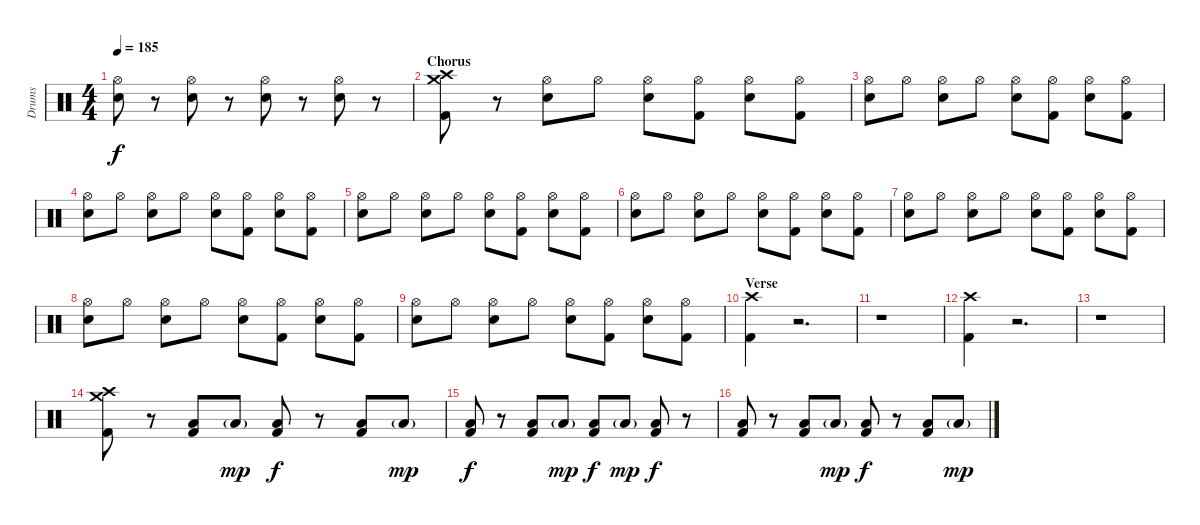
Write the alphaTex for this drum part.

\track ("Drums" "Drums") {instrument percussion}
\staff {score}
\articulation defaults
\ts (4 4)
\tempo 185
\clef neutral
\ks c
("Hi-Hat (open)" "Electric Snare (hit)").8{dy f} r.8 ("Hi-Hat (open)" "Electric Snare (hit)").8 r.8 ("Hi-Hat (open)" "Electric Snare (hit)").8 r.8 ("Hi-Hat (open)" "Electric Snare (hit)").8 r.8 |
\section ("" "Chorus")
("Crash high (hit)" "Crash medium (hit)" "Kick (hit) 2").8{volume 13} r.8 ("Hi-Hat (open)" "Electric Snare (hit)").8 "Hi-Hat (open)".8 ("Hi-Hat (open)" "Electric Snare (hit)").8 ("Hi-Hat (open)" "Kick (hit) 2").8 ("Hi-Hat (open)" "Electric Snare (hit)").8 ("Hi-Hat (open)" "Kick (hit) 2").8 |
("Hi-Hat (open)" "Electric Snare (hit)").8 "Hi-Hat (open)".8 ("Hi-Hat (open)" "Electric Snare (hit)").8 "Hi-Hat (open)".8 ("Hi-Hat (open)" "Electric Snare (hit)").8 ("Hi-Hat (open)" "Kick (hit) 2").8 ("Hi-Hat (open)" "Electric Snare (hit)").8 ("Hi-Hat (open)" "Kick (hit) 2").8 |
("Hi-Hat (open)" "Electric Snare (hit)").8 "Hi-Hat (open)".8 ("Hi-Hat (open)" "Electric Snare (hit)").8 "Hi-Hat (open)".8 ("Hi-Hat (open)" "Electric Snare (hit)").8 ("Hi-Hat (open)" "Kick (hit) 2").8 ("Hi-Hat (open)" "Electric Snare (hit)").8 ("Hi-Hat (open)" "Kick (hit) 2").8 |
("Hi-Hat (open)" "Electric Snare (hit)").8 "Hi-Hat (open)".8 ("Hi-Hat (open)" "Electric Snare (hit)").8 "Hi-Hat (open)".8 ("Hi-Hat (open)" "Electric Snare (hit)").8 ("Hi-Hat (open)" "Kick (hit) 2").8 ("Hi-Hat (open)" "Electric Snare (hit)").8 ("Hi-Hat (open)" "Kick (hit) 2").8 |
("Hi-Hat (open)" "Electric Snare (hit)").8 "Hi-Hat (open)".8 ("Hi-Hat (open)" "Electric Snare (hit)").8 "Hi-Hat (open)".8 ("Hi-Hat (open)" "Electric Snare (hit)").8 ("Hi-Hat (open)" "Kick (hit) 2").8 ("Hi-Hat (open)" "Electric Snare (hit)").8 ("Hi-Hat (open)" "Kick (hit) 2").8 |
("Hi-Hat (open)" "Electric Snare (hit)").8 "Hi-Hat (open)".8 ("Hi-Hat (open)" "Electric Snare (hit)").8 "Hi-Hat (open)".8 ("Hi-Hat (open)" "Electric Snare (hit)").8 ("Hi-Hat (open)" "Kick (hit) 2").8 ("Hi-Hat (open)" "Electric Snare (hit)").8 ("Hi-Hat (open)" "Kick (hit) 2").8 |
("Hi-Hat (open)" "Electric Snare (hit)").8 "Hi-Hat (open)".8 ("Hi-Hat (open)" "Electric Snare (hit)").8 "Hi-Hat (open)".8 ("Hi-Hat (open)" "Electric Snare (hit)").8 ("Hi-Hat (open)" "Kick (hit) 2").8 ("Hi-Hat (open)" "Electric Snare (hit)").8 ("Hi-Hat (open)" "Kick (hit) 2").8 |
("Hi-Hat (open)" "Electric Snare (hit)").8 "Hi-Hat (open)".8 ("Hi-Hat (open)" "Electric Snare (hit)").8 "Hi-Hat (open)".8 ("Hi-Hat (open)" "Electric Snare (hit)").8 ("Hi-Hat (open)" "Kick (hit) 2").8 ("Hi-Hat (open)" "Electric Snare (hit)").8 ("Hi-Hat (open)" "Kick (hit) 2").8 |
\section ("" "Verse")
("Crash high (hit)" "Kick (hit) 2").4 r.2{d volume 0} |
r.1 |
("Crash high (hit)" "Kick (hit) 2").4{volume 13} r.2{d volume 0} |
r.1 |
("Crash medium (hit)" "Crash high (hit)" "Kick (hit) 2").8{volume 13} r.8 ("Low Tom (hit)" "Kick (hit) 2").8 "Low Tom (hit)"{g}.8{dy mp} ("Low Tom (hit)" "Kick (hit) 2").8{dy f} r.8 ("Low Tom (hit)" "Kick (hit) 2").8 "Low Tom (hit)"{g}.8{dy mp} |
("Low Tom (hit)" "Kick (hit) 2").8{dy f} r.8 ("Low Tom (hit)" "Kick (hit) 2").8 "Low Tom (hit)"{g}.8{dy mp} ("Low Tom (hit)" "Kick (hit) 2").8{dy f} "Low Tom (hit)"{g}.8{dy mp} ("Low Tom (hit)" "Kick (hit) 2").8{dy f} r.8 |
("Low Tom (hit)" "Kick (hit) 2").8 r.8 ("Low Tom (hit)" "Kick (hit) 2").8 "Low Tom (hit)"{g}.8{dy mp} ("Low Tom (hit)" "Kick (hit) 2").8{dy f} r.8 ("Low Tom (hit)" "Kick (hit) 2").8 "Low Tom (hit)"{g}.8{dy mp}
